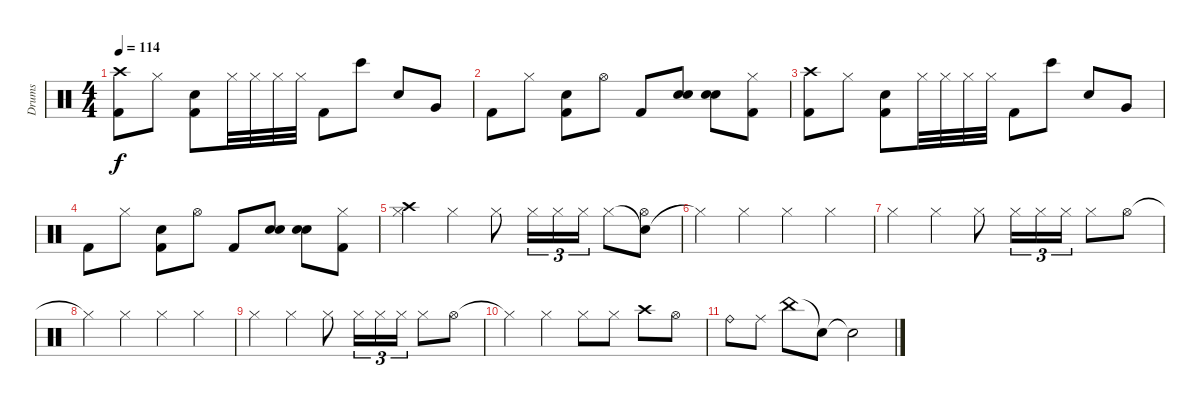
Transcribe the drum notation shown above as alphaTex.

\track ("Drums               " "Drums     ") {instrument percussion}
\staff {score}
\articulation defaults
\ts (4 4)
\tempo 114
\clef neutral
\ks c
("Crash high (hit)" "Kick (hit) 2").8{dy f} "Hi-Hat (closed)".8 ("Snare (hit) 2" "Kick (hit) 2").8 "Hi-Hat (closed)".32 "Hi-Hat (closed)".32 "Hi-Hat (closed)".32 "Hi-Hat (closed)".32 "Kick (hit) 2".8 "Bongo High (hit)".8 "Snare (hit) 2".8 "Very Low Tom (hit)".8 |
"Kick (hit) 2".8 "Hi-Hat (closed)".8 ("Snare (hit) 2" "Kick (hit) 2").8 "Hi-Hat (open)".8 "Kick (hit) 2".8 ("Snare (hit) 2" "Snare (hit) 2").8 ("Snare (hit) 2" "Snare (hit) 2").8 ("Hi-Hat (closed)" "Kick (hit) 2").8 |
("Crash high (hit)" "Kick (hit) 2").8 "Hi-Hat (closed)".8 ("Snare (hit) 2" "Kick (hit) 2").8 "Hi-Hat (closed)".32 "Hi-Hat (closed)".32 "Hi-Hat (closed)".32 "Hi-Hat (closed)".32 "Kick (hit) 2".8 "Bongo High (hit)".8 "Snare (hit) 2".8 "Very Low Tom (hit)".8 |
"Kick (hit) 2".8 "Hi-Hat (closed)".8 ("Snare (hit) 2" "Kick (hit) 2").8 "Hi-Hat (open)".8 "Kick (hit) 2".8 ("Snare (hit) 2" "Snare (hit) 2").8 ("Snare (hit) 2" "Snare (hit) 2").8 ("Hi-Hat (closed)" "Kick (hit) 2").8 |
("Crash high (hit)" "Hi-Hat (closed)").4 "Hi-Hat (closed)".4 "Hi-Hat (closed)".8 "Hi-Hat (closed)".16{tu (3 2)} "Hi-Hat (closed)".16{tu (3 2)} "Hi-Hat (closed)".16{tu (3 2)} "Hi-Hat (closed)".8 ("Snare (hit)"{t} "Hi-Hat (open)").8 |
"Hi-Hat (closed)"{t}.4 "Hi-Hat (closed)".4 "Hi-Hat (closed)".4 "Hi-Hat (closed)".4 |
"Hi-Hat (closed)".4 "Hi-Hat (closed)".4 "Hi-Hat (closed)".8 "Hi-Hat (closed)".16{tu (3 2)} "Hi-Hat (closed)".16{tu (3 2)} "Hi-Hat (closed)".16{tu (3 2)} "Hi-Hat (closed)".8 "Hi-Hat (open)".8 |
"Hi-Hat (closed)"{t}.4 "Hi-Hat (closed)".4 "Hi-Hat (closed)".4 "Hi-Hat (closed)".4 |
"Hi-Hat (closed)".4 "Hi-Hat (closed)".4 "Hi-Hat (closed)".8 "Hi-Hat (closed)".16{tu (3 2)} "Hi-Hat (closed)".16{tu (3 2)} "Hi-Hat (closed)".16{tu (3 2)} "Hi-Hat (closed)".8 "Hi-Hat (open)".8 |
"Hi-Hat (closed)"{t}.4 "Hi-Hat (closed)".4 "Hi-Hat (closed)".8 "Hi-Hat (closed)".8 "Crash high (hit)".8 "Hi-Hat (open)".8 |
"Ride (bell)".8 "Ride (middle)".8 "China (hit)".8 "Snare (hit)"{t}.8 "Snare (hit)"{t}.2
